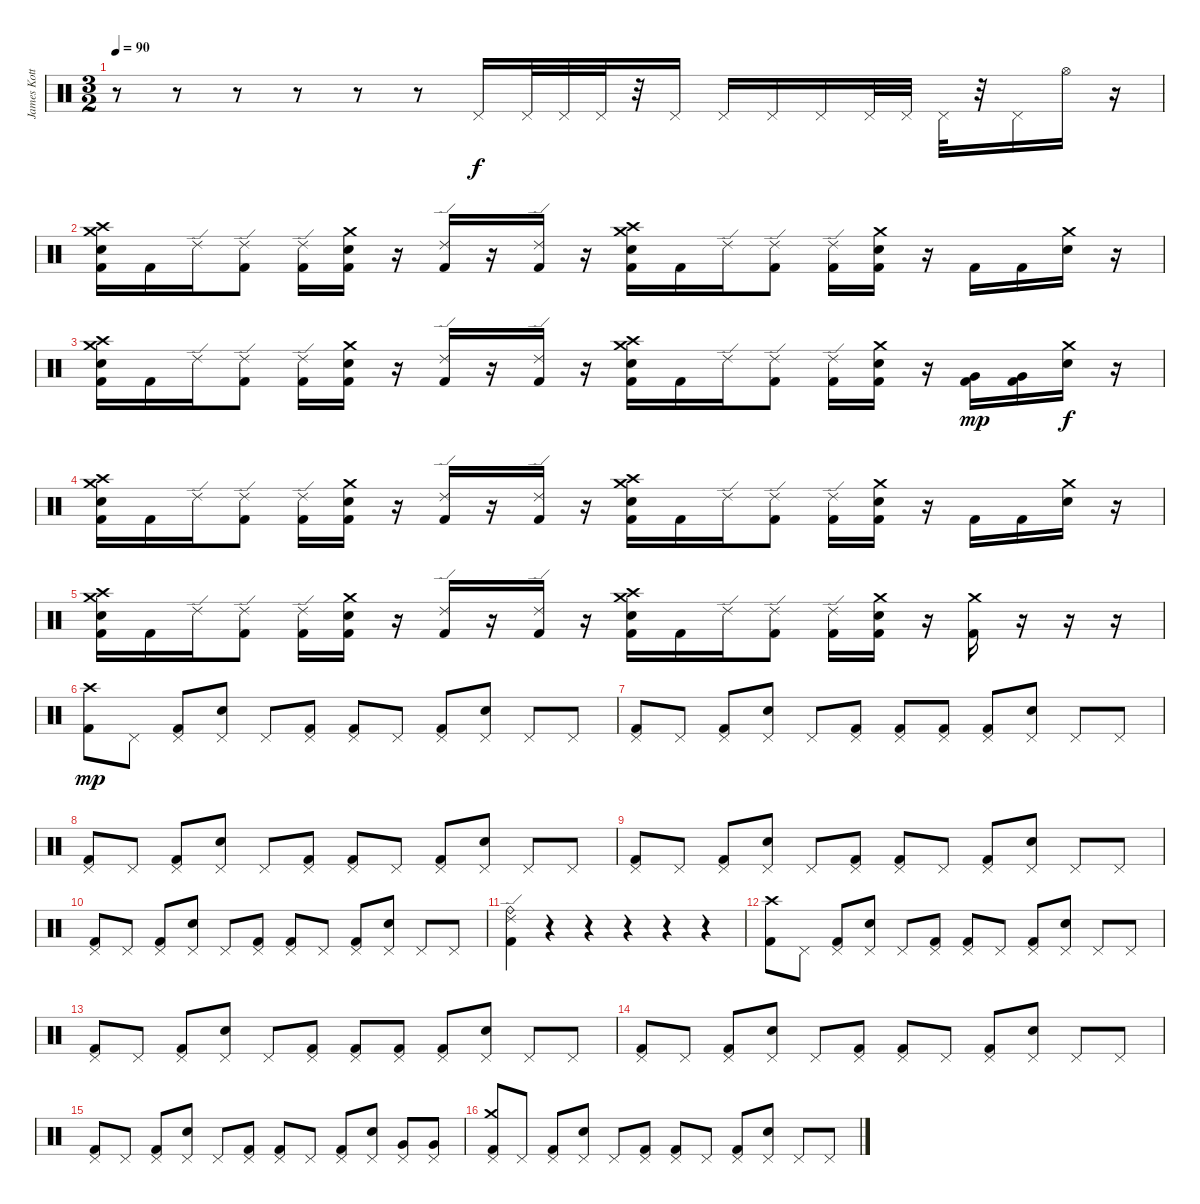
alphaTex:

\track ("James Kottak" "James Kott") {instrument percussion}
\staff {score}
\articulation defaults
\ts (3 2)
\tempo 90
\clef neutral
\ks c
r.8{dy f} r.8 r.8 r.8 r.8 r.8 "Pedal Hi-Hat (hit)".16 "Pedal Hi-Hat (hit)".32 "Pedal Hi-Hat (hit)".32 "Pedal Hi-Hat (hit)".32 r.32 "Pedal Hi-Hat (hit)".16 "Pedal Hi-Hat (hit)".16 "Pedal Hi-Hat (hit)".16 "Pedal Hi-Hat (hit)".16 "Pedal Hi-Hat (hit)".32 "Pedal Hi-Hat (hit)".32 "Pedal Hi-Hat (hit)".32 r.32 "Pedal Hi-Hat (hit)".16 "Hi-Hat (open)".16 r.16 |
("Crash medium (hit)" "Crash high (hit)" "Electric Snare (hit)" "Kick (hit) 2").16 "Kick (hit) 2".16 "Ride (edge) 2".16 ("Ride (edge) 2" "Kick (hit) 2").8 ("Ride (edge) 2" "Kick (hit) 2").16 ("Crash medium (hit)" "Electric Snare (hit)" "Kick (hit) 2").16 r.16 ("Ride (edge) 2" "Kick (hit) 2").16 r.16 ("Ride (edge) 2" "Kick (hit) 2").16 r.16 ("Crash high (hit)" "Crash medium (hit)" "Electric Snare (hit)" "Kick (hit) 2").16 "Kick (hit) 2".16 "Ride (edge) 2".16 ("Ride (edge) 2" "Kick (hit) 2").8 ("Ride (edge) 2" "Kick (hit) 2").16 ("Crash medium (hit)" "Electric Snare (hit)" "Kick (hit) 2").16 r.16 "Kick (hit) 2".16 "Kick (hit) 2".16 ("Crash medium (hit)" "Electric Snare (hit)").16 r.16 |
("Crash medium (hit)" "Crash high (hit)" "Electric Snare (hit)" "Kick (hit) 2").16 "Kick (hit) 2".16 "Ride (edge) 2".16 ("Ride (edge) 2" "Kick (hit) 2").8 ("Ride (edge) 2" "Kick (hit) 2").16 ("Crash medium (hit)" "Electric Snare (hit)" "Kick (hit) 2").16 r.16 ("Ride (edge) 2" "Kick (hit) 2").16 r.16 ("Ride (edge) 2" "Kick (hit) 2").16 r.16 ("Crash high (hit)" "Crash medium (hit)" "Electric Snare (hit)" "Kick (hit) 2").16 "Kick (hit) 2".16 "Ride (edge) 2".16 ("Ride (edge) 2" "Kick (hit) 2").8 ("Ride (edge) 2" "Kick (hit) 2").16 ("Crash medium (hit)" "Electric Snare (hit)" "Kick (hit) 2").16 r.16 ("Very Low Tom (hit)" "Kick (hit) 2").16{dy mp} ("Very Low Tom (hit)" "Kick (hit) 2").16 ("Crash medium (hit)" "Electric Snare (hit)").16{dy f} r.16 |
("Crash medium (hit)" "Crash high (hit)" "Electric Snare (hit)" "Kick (hit) 2").16 "Kick (hit) 2".16 "Ride (edge) 2".16 ("Ride (edge) 2" "Kick (hit) 2").8 ("Ride (edge) 2" "Kick (hit) 2").16 ("Crash medium (hit)" "Electric Snare (hit)" "Kick (hit) 2").16 r.16 ("Ride (edge) 2" "Kick (hit) 2").16 r.16 ("Ride (edge) 2" "Kick (hit) 2").16 r.16 ("Crash high (hit)" "Crash medium (hit)" "Electric Snare (hit)" "Kick (hit) 2").16 "Kick (hit) 2".16 "Ride (edge) 2".16 ("Ride (edge) 2" "Kick (hit) 2").8 ("Ride (edge) 2" "Kick (hit) 2").16 ("Crash medium (hit)" "Electric Snare (hit)" "Kick (hit) 2").16 r.16 "Kick (hit) 2".16 "Kick (hit) 2".16 ("Crash medium (hit)" "Electric Snare (hit)").16 r.16 |
("Crash medium (hit)" "Crash high (hit)" "Electric Snare (hit)" "Kick (hit) 2").16 "Kick (hit) 2".16 "Ride (edge) 2".16 ("Ride (edge) 2" "Kick (hit) 2").8 ("Ride (edge) 2" "Kick (hit) 2").16 ("Crash medium (hit)" "Electric Snare (hit)" "Kick (hit) 2").16 r.16 ("Ride (edge) 2" "Kick (hit) 2").16 r.16 ("Ride (edge) 2" "Kick (hit) 2").16 r.16 ("Crash high (hit)" "Crash medium (hit)" "Electric Snare (hit)" "Kick (hit) 2").16 "Kick (hit) 2".16 "Ride (edge) 2".16 ("Ride (edge) 2" "Kick (hit) 2").8 ("Ride (edge) 2" "Kick (hit) 2").16 ("Crash medium (hit)" "Electric Snare (hit)" "Kick (hit) 2").16 r.16 ("Crash medium (hit)" "Kick (hit) 2").16 r.16 r.16 r.16 |
("Crash high (hit)" "Kick (hit) 2").8{dy mp} "Pedal Hi-Hat (hit)".8 ("Pedal Hi-Hat (hit)" "Kick (hit) 2").8 ("Pedal Hi-Hat (hit)" "Electric Snare (hit)").8 "Pedal Hi-Hat (hit)".8 ("Pedal Hi-Hat (hit)" "Kick (hit) 2").8 ("Pedal Hi-Hat (hit)" "Kick (hit) 2").8 "Pedal Hi-Hat (hit)".8 ("Pedal Hi-Hat (hit)" "Kick (hit) 2").8 ("Pedal Hi-Hat (hit)" "Electric Snare (hit)").8 "Pedal Hi-Hat (hit)".8 "Pedal Hi-Hat (hit)".8 |
("Pedal Hi-Hat (hit)" "Kick (hit) 2").8 "Pedal Hi-Hat (hit)".8 ("Pedal Hi-Hat (hit)" "Kick (hit) 2").8 ("Pedal Hi-Hat (hit)" "Electric Snare (hit)").8 "Pedal Hi-Hat (hit)".8 ("Pedal Hi-Hat (hit)" "Kick (hit) 2").8 ("Pedal Hi-Hat (hit)" "Kick (hit) 2").8 ("Pedal Hi-Hat (hit)" "Kick (hit) 2").8 ("Pedal Hi-Hat (hit)" "Kick (hit) 2").8 ("Pedal Hi-Hat (hit)" "Electric Snare (hit)").8 "Pedal Hi-Hat (hit)".8 "Pedal Hi-Hat (hit)".8 |
("Pedal Hi-Hat (hit)" "Kick (hit) 2").8 "Pedal Hi-Hat (hit)".8 ("Pedal Hi-Hat (hit)" "Kick (hit) 2").8 ("Pedal Hi-Hat (hit)" "Electric Snare (hit)").8 "Pedal Hi-Hat (hit)".8 ("Pedal Hi-Hat (hit)" "Kick (hit) 2").8 ("Pedal Hi-Hat (hit)" "Kick (hit) 2").8 "Pedal Hi-Hat (hit)".8 ("Pedal Hi-Hat (hit)" "Kick (hit) 2").8 ("Pedal Hi-Hat (hit)" "Electric Snare (hit)").8 "Pedal Hi-Hat (hit)".8 "Pedal Hi-Hat (hit)".8 |
("Pedal Hi-Hat (hit)" "Kick (hit) 2").8 "Pedal Hi-Hat (hit)".8 ("Pedal Hi-Hat (hit)" "Kick (hit) 2").8 ("Pedal Hi-Hat (hit)" "Electric Snare (hit)").8 "Pedal Hi-Hat (hit)".8 ("Pedal Hi-Hat (hit)" "Kick (hit) 2").8 ("Pedal Hi-Hat (hit)" "Kick (hit) 2").8 "Pedal Hi-Hat (hit)".8 ("Pedal Hi-Hat (hit)" "Kick (hit) 2").8 ("Pedal Hi-Hat (hit)" "Electric Snare (hit)").8 "Pedal Hi-Hat (hit)".8 "Pedal Hi-Hat (hit)".8 |
("Pedal Hi-Hat (hit)" "Kick (hit) 2").8 "Pedal Hi-Hat (hit)".8 ("Pedal Hi-Hat (hit)" "Kick (hit) 2").8 ("Pedal Hi-Hat (hit)" "Electric Snare (hit)").8 "Pedal Hi-Hat (hit)".8 ("Pedal Hi-Hat (hit)" "Kick (hit) 2").8 ("Pedal Hi-Hat (hit)" "Kick (hit) 2").8 "Pedal Hi-Hat (hit)".8 ("Pedal Hi-Hat (hit)" "Kick (hit) 2").8 ("Pedal Hi-Hat (hit)" "Electric Snare (hit)").8 "Pedal Hi-Hat (hit)".8 "Pedal Hi-Hat (hit)".8 |
("Ride (edge) 2" "Ride (bell)" "Kick (hit) 2").4 r.4 r.4 r.4 r.4 r.4 |
("Crash high (hit)" "Kick (hit) 2").8 "Pedal Hi-Hat (hit)".8 ("Pedal Hi-Hat (hit)" "Kick (hit) 2").8 ("Pedal Hi-Hat (hit)" "Electric Snare (hit)").8 "Pedal Hi-Hat (hit)".8 ("Pedal Hi-Hat (hit)" "Kick (hit) 2").8 ("Pedal Hi-Hat (hit)" "Kick (hit) 2").8 "Pedal Hi-Hat (hit)".8 ("Pedal Hi-Hat (hit)" "Kick (hit) 2").8 ("Pedal Hi-Hat (hit)" "Electric Snare (hit)").8 "Pedal Hi-Hat (hit)".8 "Pedal Hi-Hat (hit)".8 |
("Pedal Hi-Hat (hit)" "Kick (hit) 2").8 "Pedal Hi-Hat (hit)".8 ("Pedal Hi-Hat (hit)" "Kick (hit) 2").8 ("Pedal Hi-Hat (hit)" "Electric Snare (hit)").8 "Pedal Hi-Hat (hit)".8 ("Pedal Hi-Hat (hit)" "Kick (hit) 2").8 ("Pedal Hi-Hat (hit)" "Kick (hit) 2").8 ("Pedal Hi-Hat (hit)" "Kick (hit) 2").8 ("Pedal Hi-Hat (hit)" "Kick (hit) 2").8 ("Pedal Hi-Hat (hit)" "Electric Snare (hit)").8 "Pedal Hi-Hat (hit)".8 "Pedal Hi-Hat (hit)".8 |
("Pedal Hi-Hat (hit)" "Kick (hit) 2").8 "Pedal Hi-Hat (hit)".8 ("Pedal Hi-Hat (hit)" "Kick (hit) 2").8 ("Pedal Hi-Hat (hit)" "Electric Snare (hit)").8 "Pedal Hi-Hat (hit)".8 ("Pedal Hi-Hat (hit)" "Kick (hit) 2").8 ("Pedal Hi-Hat (hit)" "Kick (hit) 2").8 "Pedal Hi-Hat (hit)".8 ("Pedal Hi-Hat (hit)" "Kick (hit) 2").8 ("Pedal Hi-Hat (hit)" "Electric Snare (hit)").8 "Pedal Hi-Hat (hit)".8 "Pedal Hi-Hat (hit)".8 |
("Pedal Hi-Hat (hit)" "Kick (hit) 2").8 "Pedal Hi-Hat (hit)".8 ("Pedal Hi-Hat (hit)" "Kick (hit) 2").8 ("Pedal Hi-Hat (hit)" "Electric Snare (hit)").8 "Pedal Hi-Hat (hit)".8 ("Pedal Hi-Hat (hit)" "Kick (hit) 2").8 ("Pedal Hi-Hat (hit)" "Kick (hit) 2").8 "Pedal Hi-Hat (hit)".8 ("Pedal Hi-Hat (hit)" "Kick (hit) 2").8 ("Pedal Hi-Hat (hit)" "Electric Snare (hit)").8 ("Pedal Hi-Hat (hit)" "Very Low Tom (hit)").8 ("Pedal Hi-Hat (hit)" "Very Low Tom (hit)").8 |
("Crash medium (hit)" "Pedal Hi-Hat (hit)" "Kick (hit) 2").8 "Pedal Hi-Hat (hit)".8 ("Pedal Hi-Hat (hit)" "Kick (hit) 2").8 ("Pedal Hi-Hat (hit)" "Electric Snare (hit)").8 "Pedal Hi-Hat (hit)".8 ("Pedal Hi-Hat (hit)" "Kick (hit) 2").8 ("Pedal Hi-Hat (hit)" "Kick (hit) 2").8 "Pedal Hi-Hat (hit)".8 ("Pedal Hi-Hat (hit)" "Kick (hit) 2").8 ("Pedal Hi-Hat (hit)" "Electric Snare (hit)").8 "Pedal Hi-Hat (hit)".8 "Pedal Hi-Hat (hit)".8
